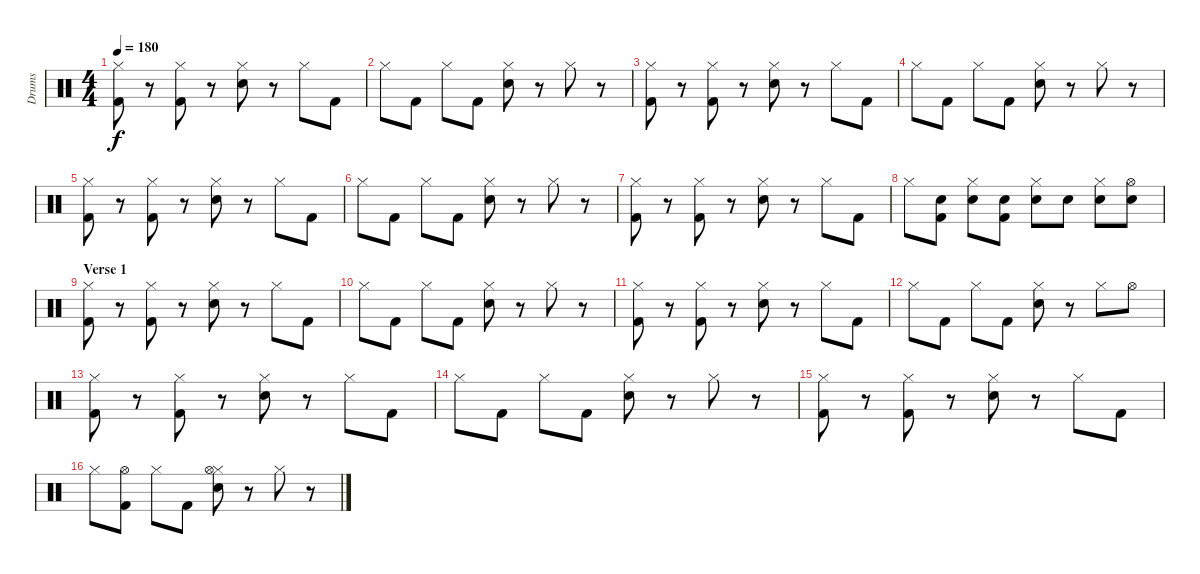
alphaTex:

\track ("Drums" "Drums") {instrument percussion}
\staff {score}
\articulation defaults
\ts (4 4)
\tempo 180
\clef neutral
\ks c
("Hi-Hat (closed)" "Kick (hit) 2").8{dy f} r.8 ("Hi-Hat (closed)" "Kick (hit) 2").8 r.8 ("Hi-Hat (closed)" "Snare (hit) 2").8 r.8 "Hi-Hat (closed)".8 "Kick (hit) 2".8 |
"Hi-Hat (closed)".8 "Kick (hit) 2".8 "Hi-Hat (closed)".8 "Kick (hit) 2".8 ("Hi-Hat (closed)" "Snare (hit) 2").8 r.8 "Hi-Hat (closed)".8 r.8 |
("Hi-Hat (closed)" "Kick (hit) 2").8 r.8 ("Hi-Hat (closed)" "Kick (hit) 2").8 r.8 ("Hi-Hat (closed)" "Snare (hit) 2").8 r.8 "Hi-Hat (closed)".8 "Kick (hit) 2".8 |
"Hi-Hat (closed)".8 "Kick (hit) 2".8 "Hi-Hat (closed)".8 "Kick (hit) 2".8 ("Hi-Hat (closed)" "Snare (hit) 2").8 r.8 "Hi-Hat (closed)".8 r.8 |
("Hi-Hat (closed)" "Kick (hit) 2").8 r.8 ("Hi-Hat (closed)" "Kick (hit) 2").8 r.8 ("Hi-Hat (closed)" "Snare (hit) 2").8 r.8 "Hi-Hat (closed)".8 "Kick (hit) 2".8 |
"Hi-Hat (closed)".8 "Kick (hit) 2".8 "Hi-Hat (closed)".8 "Kick (hit) 2".8 ("Hi-Hat (closed)" "Snare (hit) 2").8 r.8 "Hi-Hat (closed)".8 r.8 |
("Hi-Hat (closed)" "Kick (hit) 2").8 r.8 ("Hi-Hat (closed)" "Kick (hit) 2").8 r.8 ("Hi-Hat (closed)" "Snare (hit) 2").8 r.8 "Hi-Hat (closed)".8 "Kick (hit) 2".8 |
"Hi-Hat (closed)".8 ("Snare (hit) 2" "Kick (hit) 2").8 ("Hi-Hat (closed)" "Snare (hit) 2").8 ("Snare (hit) 2" "Kick (hit) 2").8 ("Hi-Hat (closed)" "Snare (hit) 2").8 "Snare (hit) 2".8 ("Hi-Hat (closed)" "Snare (hit) 2").8 ("Snare (hit) 2" "Hi-Hat (open)").8 |
\section ("" "Verse 1")
("Hi-Hat (closed)" "Kick (hit) 2").8 r.8 ("Hi-Hat (closed)" "Kick (hit) 2").8 r.8 ("Hi-Hat (closed)" "Snare (hit) 2").8 r.8 "Hi-Hat (closed)".8 "Kick (hit) 2".8 |
"Hi-Hat (closed)".8 "Kick (hit) 2".8 "Hi-Hat (closed)".8 "Kick (hit) 2".8 ("Hi-Hat (closed)" "Snare (hit) 2").8 r.8 "Hi-Hat (closed)".8 r.8 |
("Hi-Hat (closed)" "Kick (hit) 2").8 r.8 ("Hi-Hat (closed)" "Kick (hit) 2").8 r.8 ("Hi-Hat (closed)" "Snare (hit) 2").8 r.8 "Hi-Hat (closed)".8 "Kick (hit) 2".8 |
"Hi-Hat (closed)".8 "Kick (hit) 2".8 "Hi-Hat (closed)".8 "Kick (hit) 2".8 ("Hi-Hat (closed)" "Snare (hit) 2").8 r.8 "Hi-Hat (closed)".8 "Hi-Hat (open)".8 |
("Hi-Hat (closed)" "Kick (hit) 2").8 r.8 ("Hi-Hat (closed)" "Kick (hit) 2").8 r.8 ("Hi-Hat (closed)" "Snare (hit) 2").8 r.8 "Hi-Hat (closed)".8 "Kick (hit) 2".8 |
"Hi-Hat (closed)".8 "Kick (hit) 2".8 "Hi-Hat (closed)".8 "Kick (hit) 2".8 ("Hi-Hat (closed)" "Snare (hit) 2").8 r.8 "Hi-Hat (closed)".8 r.8 |
("Hi-Hat (closed)" "Kick (hit) 2").8 r.8 ("Hi-Hat (closed)" "Kick (hit) 2").8 r.8 ("Hi-Hat (closed)" "Snare (hit) 2").8 r.8 "Hi-Hat (closed)".8 "Kick (hit) 2".8 |
"Hi-Hat (closed)".8 ("Kick (hit) 2" "Hi-Hat (open)").8 "Hi-Hat (closed)".8 "Kick (hit) 2".8 ("Hi-Hat (closed)" "Snare (hit) 2" "Hi-Hat (open)").8 r.8 "Hi-Hat (closed)".8 r.8
